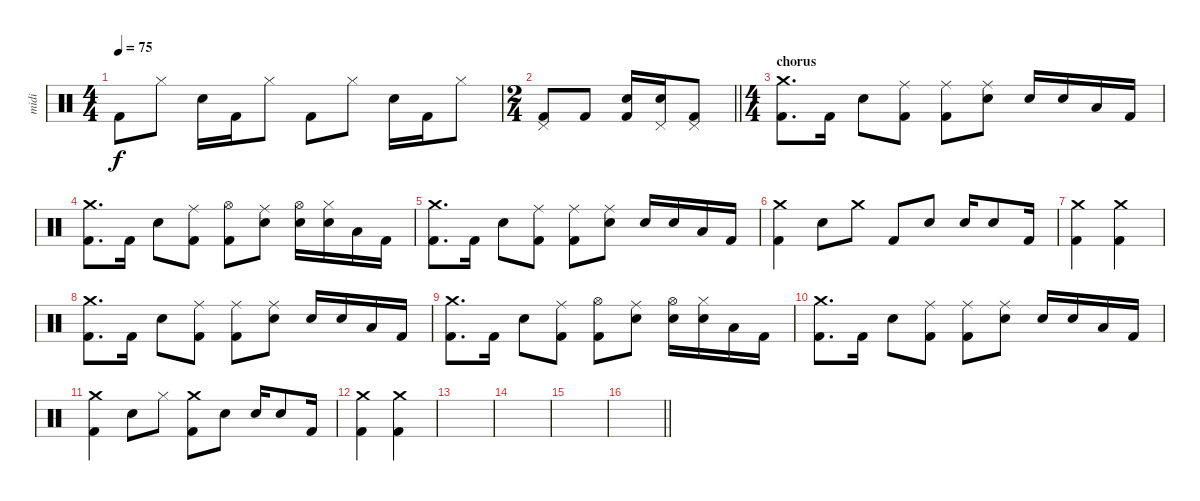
\track ("midi" "midi") {instrument percussion}
\staff {score}
\articulation defaults
\ts (4 4)
\tempo 75
\clef neutral
\ks c "Kick (hit) 2".8{dy f} "Hi-Hat (closed)".8 "Electric Snare (hit)".16 "Kick (hit) 2".16 "Hi-Hat (closed)".8 "Kick (hit) 2".8 "Hi-Hat (closed)".8 "Electric Snare (hit)".16 "Kick (hit) 2".16 "Hi-Hat (closed)".8
|
\ts (2 4)
\barLineRight lightlight
("Kick (hit) 2" "Pedal Hi-Hat (hit)").8 "Kick (hit) 2".8 ("Kick (hit) 2" "Electric Snare (hit)").16 ("Electric Snare (hit)" "Pedal Hi-Hat (hit)").16 ("Kick (hit) 2" "Pedal Hi-Hat (hit)").8 |
\ts (4 4)
\section ("" "chorus")
("Crash medium (hit)" "Kick (hit) 2").8{d} "Kick (hit) 2".16 "Electric Snare (hit)".8 ("Ride (middle)" "Kick (hit) 2").8 ("Ride (middle)" "Kick (hit) 2").8 ("Ride (middle)" "Electric Snare (hit)").8 "Electric Snare (hit)".16 "Electric Snare (hit)".16 "Low Floor Tom (hit)".16 "Kick (hit) 2".16 |
("Crash medium (hit)" "Kick (hit) 2").8{d} "Kick (hit) 2".16 "Electric Snare (hit)".8 ("Ride (middle)" "Kick (hit) 2").8 ("Hi-Hat (open)" "Kick (hit) 2").8 ("Ride (middle)" "Electric Snare (hit)").8 ("Hi-Hat (open)" "Electric Snare (hit)").16 ("Hi-Hat (closed)" "Electric Snare (hit)").16 "Low Floor Tom (hit)".16 "Kick (hit) 2".16 |
("Crash medium (hit)" "Kick (hit) 2").8{d} "Kick (hit) 2".16 "Electric Snare (hit)".8 ("Ride (middle)" "Kick (hit) 2").8 ("Ride (middle)" "Kick (hit) 2").8 ("Ride (middle)" "Electric Snare (hit)").8 "Electric Snare (hit)".16 "Electric Snare (hit)".16 "Low Floor Tom (hit)".16 "Kick (hit) 2".16 |
("Crash medium (hit)" "Kick (hit) 2").4 "Electric Snare (hit)".8 "Crash medium (hit)".8 "Kick (hit) 2".8 "Electric Snare (hit)".8 "Electric Snare (hit)".16 "Electric Snare (hit)".8 "Kick (hit) 2".16 |
("Crash medium (hit)" "Kick (hit) 2").4 ("Crash medium (hit)" "Kick (hit) 2").4 |
("Crash medium (hit)" "Kick (hit) 2").8{d} "Kick (hit) 2".16 "Electric Snare (hit)".8 ("Ride (middle)" "Kick (hit) 2").8 ("Ride (middle)" "Kick (hit) 2").8 ("Ride (middle)" "Electric Snare (hit)").8 "Electric Snare (hit)".16 "Electric Snare (hit)".16 "Low Floor Tom (hit)".16 "Kick (hit) 2".16 |
("Crash medium (hit)" "Kick (hit) 2").8{d} "Kick (hit) 2".16 "Electric Snare (hit)".8 ("Ride (middle)" "Kick (hit) 2").8 ("Hi-Hat (open)" "Kick (hit) 2").8 ("Ride (middle)" "Electric Snare (hit)").8 ("Hi-Hat (open)" "Electric Snare (hit)").16 ("Hi-Hat (closed)" "Electric Snare (hit)").16 "Low Floor Tom (hit)".16 "Kick (hit) 2".16 |
("Crash medium (hit)" "Kick (hit) 2").8{d} "Kick (hit) 2".16 "Electric Snare (hit)".8 ("Ride (middle)" "Kick (hit) 2").8 ("Ride (middle)" "Kick (hit) 2").8 ("Ride (middle)" "Electric Snare (hit)").8 "Electric Snare (hit)".16 "Electric Snare (hit)".16 "Low Floor Tom (hit)".16 "Kick (hit) 2".16 |
("Crash medium (hit)" "Kick (hit) 2").4 "Electric Snare (hit)".8 "Hi-Hat (closed)".8 ("Crash medium (hit)" "Kick (hit) 2").8 "Electric Snare (hit)".8 "Electric Snare (hit)".16 "Electric Snare (hit)".8 "Kick (hit) 2".16 |
("Crash medium (hit)" "Kick (hit) 2").4 ("Crash medium (hit)" "Kick (hit) 2").4 |
|
|
|
\barLineRight lightlight
